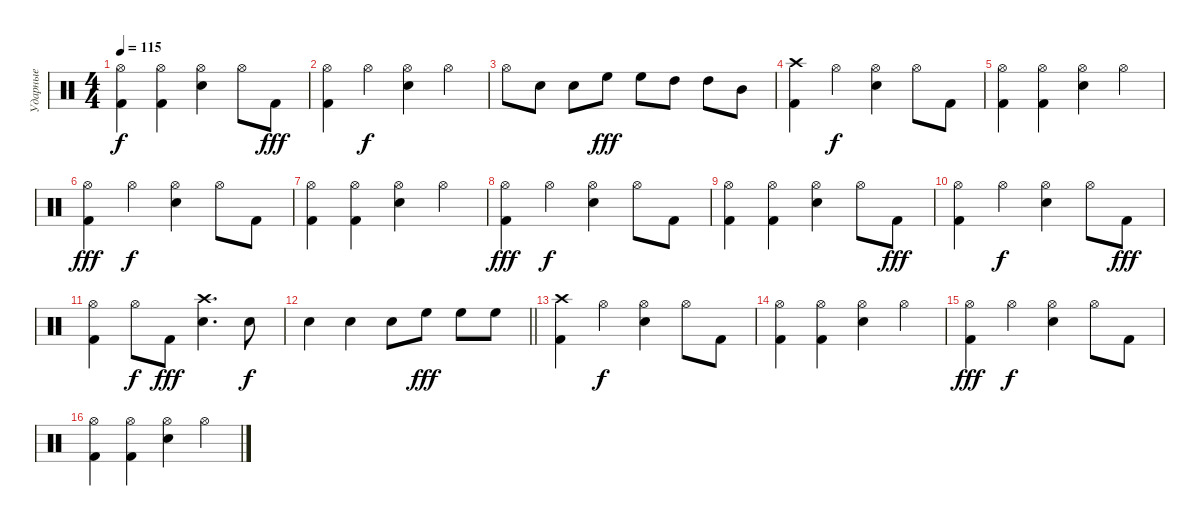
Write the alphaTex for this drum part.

\track ("Ударные" "Ударные") {instrument percussion}
\staff {score}
\articulation defaults
\ts (4 4)
\tempo 115
\clef neutral
\ks c
("Kick (hit) 2" "Hi-Hat (open)").4{dy f} ("Kick (hit) 2" "Hi-Hat (open)").4 ("Snare (hit) 2" "Hi-Hat (open)").4 "Hi-Hat (open)".8 "Kick (hit) 2".8{dy fff} |
("Kick (hit) 2" "Hi-Hat (open)").4 "Hi-Hat (open)".4{dy f} ("Snare (hit) 2" "Hi-Hat (open)").4 "Hi-Hat (open)".4 |
"Hi-Hat (open)".8 "Snare (hit) 2".8 "Snare (hit) 2".8 "High Floor Tom (hit)".8{dy fff} "High Floor Tom (hit)".8 "High Tom (hit)".8 "High Tom (hit)".8 "Mid Tom (hit)".8 |
("Kick (hit) 2" "Crash high (hit)").4 "Hi-Hat (open)".4{dy f} ("Snare (hit) 2" "Hi-Hat (open)").4 "Hi-Hat (open)".8 "Kick (hit) 2".8 |
("Kick (hit) 2" "Hi-Hat (open)").4 ("Kick (hit) 2" "Hi-Hat (open)").4 ("Snare (hit) 2" "Hi-Hat (open)").4 "Hi-Hat (open)".4 |
("Kick (hit) 2" "Hi-Hat (open)").4{dy fff} "Hi-Hat (open)".4{dy f} ("Snare (hit) 2" "Hi-Hat (open)").4 "Hi-Hat (open)".8 "Kick (hit) 2".8 |
("Kick (hit) 2" "Hi-Hat (open)").4 ("Kick (hit) 2" "Hi-Hat (open)").4 ("Snare (hit) 2" "Hi-Hat (open)").4 "Hi-Hat (open)".4 |
("Kick (hit) 2" "Hi-Hat (open)").4{dy fff} "Hi-Hat (open)".4{dy f} ("Snare (hit) 2" "Hi-Hat (open)").4 "Hi-Hat (open)".8 "Kick (hit) 2".8 |
("Kick (hit) 2" "Hi-Hat (open)").4 ("Kick (hit) 2" "Hi-Hat (open)").4 ("Snare (hit) 2" "Hi-Hat (open)").4 "Hi-Hat (open)".8 "Kick (hit) 2".8{dy fff} |
("Kick (hit) 2" "Hi-Hat (open)").4 "Hi-Hat (open)".4{dy f} ("Snare (hit) 2" "Hi-Hat (open)").4 "Hi-Hat (open)".8 "Kick (hit) 2".8{dy fff} |
("Kick (hit) 2" "Hi-Hat (open)").4 "Hi-Hat (open)".8{dy f} "Kick (hit) 2".8{dy fff} ("Snare (hit) 2" "Crash high (hit)").4{d} "Snare (hit) 2".8{dy f} |
\barLineRight lightlight "Snare (hit) 2".4 "Snare (hit) 2".4 "Snare (hit) 2".8 "High Floor Tom (hit)".8{dy fff} "High Floor Tom (hit)".8 "High Floor Tom (hit)".8
|
("Kick (hit) 2" "Crash high (hit)").4 "Hi-Hat (open)".4{dy f} ("Snare (hit) 2" "Hi-Hat (open)").4 "Hi-Hat (open)".8 "Kick (hit) 2".8 |
("Kick (hit) 2" "Hi-Hat (open)").4 ("Kick (hit) 2" "Hi-Hat (open)").4 ("Snare (hit) 2" "Hi-Hat (open)").4 "Hi-Hat (open)".4 |
("Kick (hit) 2" "Hi-Hat (open)").4{dy fff} "Hi-Hat (open)".4{dy f} ("Snare (hit) 2" "Hi-Hat (open)").4 "Hi-Hat (open)".8 "Kick (hit) 2".8 |
("Kick (hit) 2" "Hi-Hat (open)").4 ("Kick (hit) 2" "Hi-Hat (open)").4 ("Snare (hit) 2" "Hi-Hat (open)").4 "Hi-Hat (open)".4
